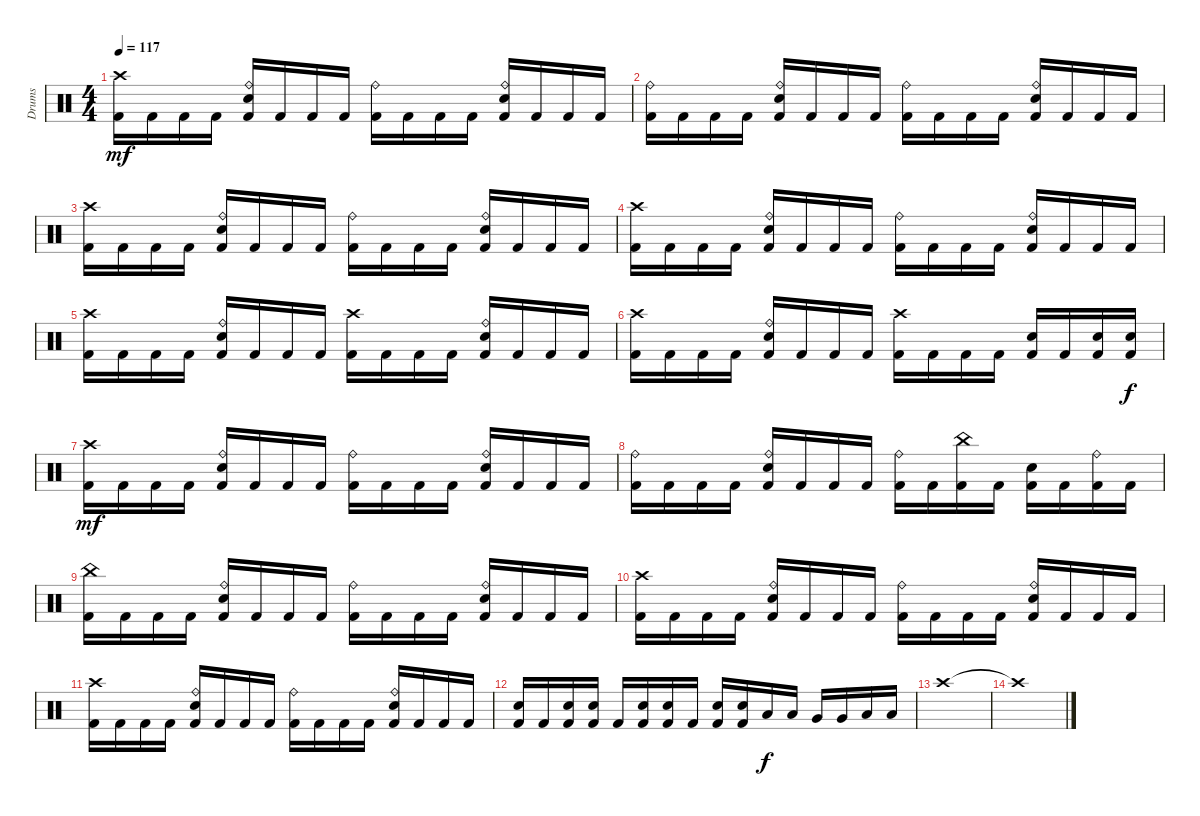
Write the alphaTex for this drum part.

\track ("Drums" "Drums") {instrument percussion}
\staff {score}
\articulation defaults
\ts (4 4)
\tempo 117
\clef neutral
\ks c
("Crash high (hit)" "Kick (hit) 2").16{dy mf} "Kick (hit) 2".16 "Kick (hit) 2".16 "Kick (hit) 2".16 ("Ride (bell)" "Snare (hit) 2" "Kick (hit) 2").16 "Kick (hit) 2".16 "Kick (hit) 2".16 "Kick (hit) 2".16 ("Ride (bell)" "Kick (hit) 2").16 "Kick (hit) 2".16 "Kick (hit) 2".16 "Kick (hit) 2".16 ("Ride (bell)" "Snare (hit) 2" "Kick (hit) 2").16 "Kick (hit) 2".16 "Kick (hit) 2".16 "Kick (hit) 2".16 |
("Ride (bell)" "Kick (hit) 2").16 "Kick (hit) 2".16 "Kick (hit) 2".16 "Kick (hit) 2".16 ("Ride (bell)" "Snare (hit) 2" "Kick (hit) 2").16 "Kick (hit) 2".16 "Kick (hit) 2".16 "Kick (hit) 2".16 ("Ride (bell)" "Kick (hit) 2").16 "Kick (hit) 2".16 "Kick (hit) 2".16 "Kick (hit) 2".16 ("Ride (bell)" "Snare (hit) 2" "Kick (hit) 2").16 "Kick (hit) 2".16 "Kick (hit) 2".16 "Kick (hit) 2".16 |
("Crash high (hit)" "Kick (hit) 2").16 "Kick (hit) 2".16 "Kick (hit) 2".16 "Kick (hit) 2".16 ("Ride (bell)" "Snare (hit) 2" "Kick (hit) 2").16 "Kick (hit) 2".16 "Kick (hit) 2".16 "Kick (hit) 2".16 ("Ride (bell)" "Kick (hit) 2").16 "Kick (hit) 2".16 "Kick (hit) 2".16 "Kick (hit) 2".16 ("Ride (bell)" "Snare (hit) 2" "Kick (hit) 2").16 "Kick (hit) 2".16 "Kick (hit) 2".16 "Kick (hit) 2".16 |
("Crash high (hit)" "Kick (hit) 2").16 "Kick (hit) 2".16 "Kick (hit) 2".16 "Kick (hit) 2".16 ("Ride (bell)" "Snare (hit) 2" "Kick (hit) 2").16 "Kick (hit) 2".16 "Kick (hit) 2".16 "Kick (hit) 2".16 ("Ride (bell)" "Kick (hit) 2").16 "Kick (hit) 2".16 "Kick (hit) 2".16 "Kick (hit) 2".16 ("Ride (bell)" "Snare (hit) 2" "Kick (hit) 2").16 "Kick (hit) 2".16 "Kick (hit) 2".16 "Kick (hit) 2".16 |
("Crash high (hit)" "Kick (hit) 2").16 "Kick (hit) 2".16 "Kick (hit) 2".16 "Kick (hit) 2".16 ("Ride (bell)" "Snare (hit) 2" "Kick (hit) 2").16 "Kick (hit) 2".16 "Kick (hit) 2".16 "Kick (hit) 2".16 ("Crash high (hit)" "Kick (hit) 2").16 "Kick (hit) 2".16 "Kick (hit) 2".16 "Kick (hit) 2".16 ("Ride (bell)" "Snare (hit) 2" "Kick (hit) 2").16 "Kick (hit) 2".16 "Kick (hit) 2".16 "Kick (hit) 2".16 |
("Crash high (hit)" "Kick (hit) 2").16 "Kick (hit) 2".16 "Kick (hit) 2".16 "Kick (hit) 2".16 ("Ride (bell)" "Snare (hit) 2" "Kick (hit) 2").16 "Kick (hit) 2".16 "Kick (hit) 2".16 "Kick (hit) 2".16 ("Crash high (hit)" "Kick (hit) 2").16 "Kick (hit) 2".16 "Kick (hit) 2".16 "Kick (hit) 2".16 ("Snare (hit) 2" "Kick (hit) 2").16 "Kick (hit) 2".16 ("Snare (hit) 2" "Kick (hit) 2").16 ("Snare (hit) 2" "Kick (hit) 2").16{dy f} |
("Crash high (hit)" "Kick (hit) 2").16{dy mf} "Kick (hit) 2".16 "Kick (hit) 2".16 "Kick (hit) 2".16 ("Ride (bell)" "Snare (hit) 2" "Kick (hit) 2").16 "Kick (hit) 2".16 "Kick (hit) 2".16 "Kick (hit) 2".16 ("Ride (bell)" "Kick (hit) 2").16 "Kick (hit) 2".16 "Kick (hit) 2".16 "Kick (hit) 2".16 ("Ride (bell)" "Snare (hit) 2" "Kick (hit) 2").16 "Kick (hit) 2".16 "Kick (hit) 2".16 "Kick (hit) 2".16 |
("Ride (bell)" "Kick (hit) 2").16 "Kick (hit) 2".16 "Kick (hit) 2".16 "Kick (hit) 2".16 ("Ride (bell)" "Snare (hit) 2" "Kick (hit) 2").16 "Kick (hit) 2".16 "Kick (hit) 2".16 "Kick (hit) 2".16 ("Ride (bell)" "Kick (hit) 2").16 "Kick (hit) 2".16 ("China (hit)" "Kick (hit) 2").16 "Kick (hit) 2".16 ("Snare (hit) 2" "Kick (hit) 2").16 "Kick (hit) 2".16 ("Ride (bell)" "Kick (hit) 2").16 "Kick (hit) 2".16 |
("China (hit)" "Kick (hit) 2").16 "Kick (hit) 2".16 "Kick (hit) 2".16 "Kick (hit) 2".16 ("Ride (bell)" "Snare (hit) 2" "Kick (hit) 2").16 "Kick (hit) 2".16 "Kick (hit) 2".16 "Kick (hit) 2".16 ("Ride (bell)" "Kick (hit) 2").16 "Kick (hit) 2".16 "Kick (hit) 2".16 "Kick (hit) 2".16 ("Ride (bell)" "Snare (hit) 2" "Kick (hit) 2").16 "Kick (hit) 2".16 "Kick (hit) 2".16 "Kick (hit) 2".16 |
("Crash high (hit)" "Kick (hit) 2").16 "Kick (hit) 2".16 "Kick (hit) 2".16 "Kick (hit) 2".16 ("Ride (bell)" "Snare (hit) 2" "Kick (hit) 2").16 "Kick (hit) 2".16 "Kick (hit) 2".16 "Kick (hit) 2".16 ("Ride (bell)" "Kick (hit) 2").16 "Kick (hit) 2".16 "Kick (hit) 2".16 "Kick (hit) 2".16 ("Ride (bell)" "Snare (hit) 2" "Kick (hit) 2").16 "Kick (hit) 2".16 "Kick (hit) 2".16 "Kick (hit) 2".16 |
("Crash high (hit)" "Kick (hit) 2").16 "Kick (hit) 2".16 "Kick (hit) 2".16 "Kick (hit) 2".16 ("Ride (bell)" "Snare (hit) 2" "Kick (hit) 2").16 "Kick (hit) 2".16 "Kick (hit) 2".16 "Kick (hit) 2".16 ("Ride (bell)" "Kick (hit) 2").16 "Kick (hit) 2".16 "Kick (hit) 2".16 "Kick (hit) 2".16 ("Ride (bell)" "Snare (hit) 2" "Kick (hit) 2").16 "Kick (hit) 2".16 "Kick (hit) 2".16 "Kick (hit) 2".16 |
("Snare (hit) 2" "Kick (hit) 2").16 "Kick (hit) 2".16 ("Snare (hit) 2" "Kick (hit) 2").16 ("Snare (hit) 2" "Kick (hit) 2").16 "Kick (hit) 2".16 ("Snare (hit) 2" "Kick (hit) 2").16 ("Snare (hit) 2" "Kick (hit) 2").16 "Kick (hit) 2".16 ("Snare (hit) 2" "Kick (hit) 2").16 ("Snare (hit) 2" "Kick (hit) 2").16 "Low Tom (hit)".16{dy f} "Low Tom (hit)".16 "Very Low Tom (hit)".16 "Very Low Tom (hit)".16 "Low Floor Tom (hit)".16 "Low Floor Tom (hit)".16 |
"Crash high (hit)".1 |
"Crash high (hit)"{t}.1
